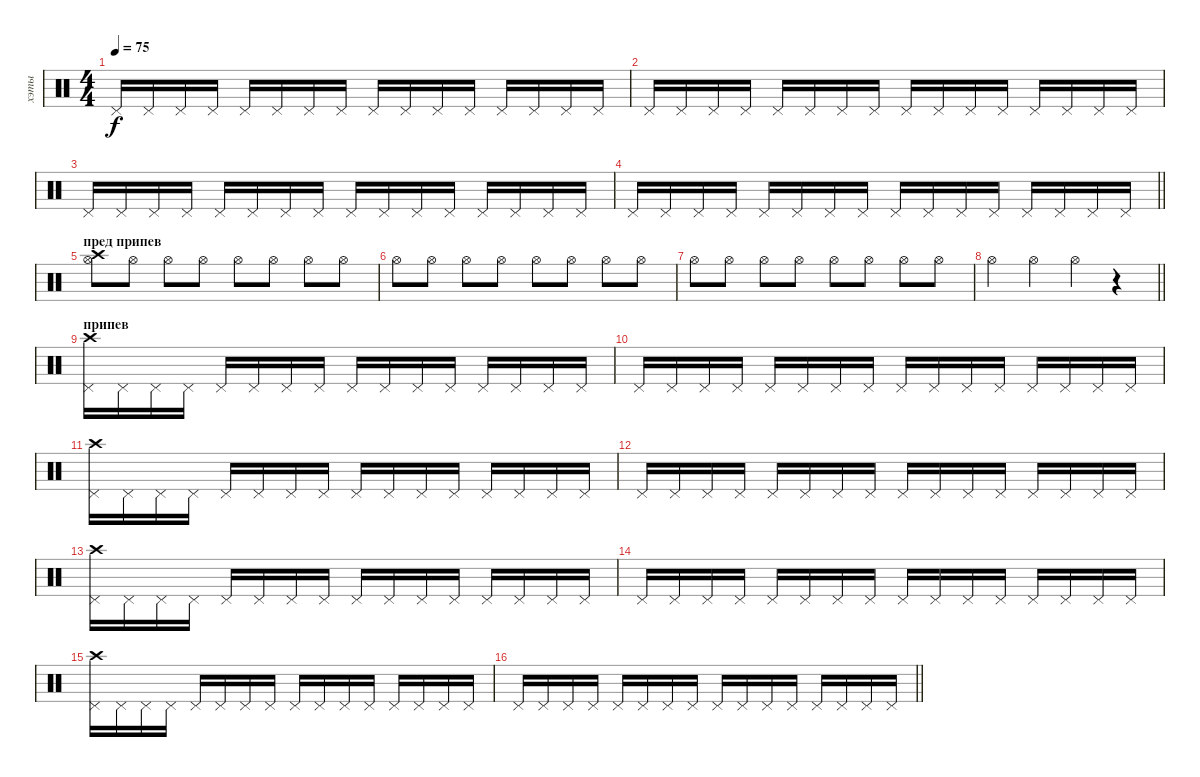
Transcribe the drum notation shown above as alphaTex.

\track ("хэты" "хэты") {instrument percussion}
\staff {score}
\articulation defaults
\ts (4 4)
\tempo 75
\clef neutral
\ks c "Pedal Hi-Hat (hit)".16{dy f} "Pedal Hi-Hat (hit)".16 "Pedal Hi-Hat (hit)".16 "Pedal Hi-Hat (hit)".16 "Pedal Hi-Hat (hit)".16 "Pedal Hi-Hat (hit)".16 "Pedal Hi-Hat (hit)".16 "Pedal Hi-Hat (hit)".16 "Pedal Hi-Hat (hit)".16 "Pedal Hi-Hat (hit)".16 "Pedal Hi-Hat (hit)".16 "Pedal Hi-Hat (hit)".16 "Pedal Hi-Hat (hit)".16 "Pedal Hi-Hat (hit)".16 "Pedal Hi-Hat (hit)".16 "Pedal Hi-Hat (hit)".16
|
"Pedal Hi-Hat (hit)".16 "Pedal Hi-Hat (hit)".16 "Pedal Hi-Hat (hit)".16 "Pedal Hi-Hat (hit)".16 "Pedal Hi-Hat (hit)".16 "Pedal Hi-Hat (hit)".16 "Pedal Hi-Hat (hit)".16 "Pedal Hi-Hat (hit)".16 "Pedal Hi-Hat (hit)".16 "Pedal Hi-Hat (hit)".16 "Pedal Hi-Hat (hit)".16 "Pedal Hi-Hat (hit)".16 "Pedal Hi-Hat (hit)".16 "Pedal Hi-Hat (hit)".16 "Pedal Hi-Hat (hit)".16 "Pedal Hi-Hat (hit)".16 |
"Pedal Hi-Hat (hit)".16 "Pedal Hi-Hat (hit)".16 "Pedal Hi-Hat (hit)".16 "Pedal Hi-Hat (hit)".16 "Pedal Hi-Hat (hit)".16 "Pedal Hi-Hat (hit)".16 "Pedal Hi-Hat (hit)".16 "Pedal Hi-Hat (hit)".16 "Pedal Hi-Hat (hit)".16 "Pedal Hi-Hat (hit)".16 "Pedal Hi-Hat (hit)".16 "Pedal Hi-Hat (hit)".16 "Pedal Hi-Hat (hit)".16 "Pedal Hi-Hat (hit)".16 "Pedal Hi-Hat (hit)".16 "Pedal Hi-Hat (hit)".16 |
\barLineRight lightlight "Pedal Hi-Hat (hit)".16 "Pedal Hi-Hat (hit)".16 "Pedal Hi-Hat (hit)".16 "Pedal Hi-Hat (hit)".16 "Pedal Hi-Hat (hit)".16 "Pedal Hi-Hat (hit)".16 "Pedal Hi-Hat (hit)".16 "Pedal Hi-Hat (hit)".16 "Pedal Hi-Hat (hit)".16 "Pedal Hi-Hat (hit)".16 "Pedal Hi-Hat (hit)".16 "Pedal Hi-Hat (hit)".16 "Pedal Hi-Hat (hit)".16 "Pedal Hi-Hat (hit)".16 "Pedal Hi-Hat (hit)".16 "Pedal Hi-Hat (hit)".16
|
\section ("" "пред припев")
("Crash high (hit)" "Hi-Hat (open)").8 "Hi-Hat (open)".8 "Hi-Hat (open)".8 "Hi-Hat (open)".8 "Hi-Hat (open)".8 "Hi-Hat (open)".8 "Hi-Hat (open)".8 "Hi-Hat (open)".8 |
"Hi-Hat (open)".8 "Hi-Hat (open)".8 "Hi-Hat (open)".8 "Hi-Hat (open)".8 "Hi-Hat (open)".8 "Hi-Hat (open)".8 "Hi-Hat (open)".8 "Hi-Hat (open)".8 |
"Hi-Hat (open)".8 "Hi-Hat (open)".8 "Hi-Hat (open)".8 "Hi-Hat (open)".8 "Hi-Hat (open)".8 "Hi-Hat (open)".8 "Hi-Hat (open)".8 "Hi-Hat (open)".8 |
\barLineRight lightlight "Hi-Hat (open)".4 "Hi-Hat (open)".4 "Hi-Hat (open)".4
r.4 |
\section ("" "припев")
("Crash high (hit)" "Pedal Hi-Hat (hit)").16 "Pedal Hi-Hat (hit)".16 "Pedal Hi-Hat (hit)".16 "Pedal Hi-Hat (hit)".16 "Pedal Hi-Hat (hit)".16 "Pedal Hi-Hat (hit)".16 "Pedal Hi-Hat (hit)".16 "Pedal Hi-Hat (hit)".16 "Pedal Hi-Hat (hit)".16 "Pedal Hi-Hat (hit)".16 "Pedal Hi-Hat (hit)".16 "Pedal Hi-Hat (hit)".16 "Pedal Hi-Hat (hit)".16 "Pedal Hi-Hat (hit)".16 "Pedal Hi-Hat (hit)".16 "Pedal Hi-Hat (hit)".16 |
"Pedal Hi-Hat (hit)".16 "Pedal Hi-Hat (hit)".16 "Pedal Hi-Hat (hit)".16 "Pedal Hi-Hat (hit)".16 "Pedal Hi-Hat (hit)".16 "Pedal Hi-Hat (hit)".16 "Pedal Hi-Hat (hit)".16 "Pedal Hi-Hat (hit)".16 "Pedal Hi-Hat (hit)".16 "Pedal Hi-Hat (hit)".16 "Pedal Hi-Hat (hit)".16 "Pedal Hi-Hat (hit)".16 "Pedal Hi-Hat (hit)".16 "Pedal Hi-Hat (hit)".16 "Pedal Hi-Hat (hit)".16 "Pedal Hi-Hat (hit)".16 |
("Crash high (hit)" "Pedal Hi-Hat (hit)").16 "Pedal Hi-Hat (hit)".16 "Pedal Hi-Hat (hit)".16 "Pedal Hi-Hat (hit)".16 "Pedal Hi-Hat (hit)".16 "Pedal Hi-Hat (hit)".16 "Pedal Hi-Hat (hit)".16 "Pedal Hi-Hat (hit)".16 "Pedal Hi-Hat (hit)".16 "Pedal Hi-Hat (hit)".16 "Pedal Hi-Hat (hit)".16 "Pedal Hi-Hat (hit)".16 "Pedal Hi-Hat (hit)".16 "Pedal Hi-Hat (hit)".16 "Pedal Hi-Hat (hit)".16 "Pedal Hi-Hat (hit)".16 |
"Pedal Hi-Hat (hit)".16 "Pedal Hi-Hat (hit)".16 "Pedal Hi-Hat (hit)".16 "Pedal Hi-Hat (hit)".16 "Pedal Hi-Hat (hit)".16 "Pedal Hi-Hat (hit)".16 "Pedal Hi-Hat (hit)".16 "Pedal Hi-Hat (hit)".16 "Pedal Hi-Hat (hit)".16 "Pedal Hi-Hat (hit)".16 "Pedal Hi-Hat (hit)".16 "Pedal Hi-Hat (hit)".16 "Pedal Hi-Hat (hit)".16 "Pedal Hi-Hat (hit)".16 "Pedal Hi-Hat (hit)".16 "Pedal Hi-Hat (hit)".16 |
("Crash high (hit)" "Pedal Hi-Hat (hit)").16 "Pedal Hi-Hat (hit)".16 "Pedal Hi-Hat (hit)".16 "Pedal Hi-Hat (hit)".16 "Pedal Hi-Hat (hit)".16 "Pedal Hi-Hat (hit)".16 "Pedal Hi-Hat (hit)".16 "Pedal Hi-Hat (hit)".16 "Pedal Hi-Hat (hit)".16 "Pedal Hi-Hat (hit)".16 "Pedal Hi-Hat (hit)".16 "Pedal Hi-Hat (hit)".16 "Pedal Hi-Hat (hit)".16 "Pedal Hi-Hat (hit)".16 "Pedal Hi-Hat (hit)".16 "Pedal Hi-Hat (hit)".16 |
"Pedal Hi-Hat (hit)".16 "Pedal Hi-Hat (hit)".16 "Pedal Hi-Hat (hit)".16 "Pedal Hi-Hat (hit)".16 "Pedal Hi-Hat (hit)".16 "Pedal Hi-Hat (hit)".16 "Pedal Hi-Hat (hit)".16 "Pedal Hi-Hat (hit)".16 "Pedal Hi-Hat (hit)".16 "Pedal Hi-Hat (hit)".16 "Pedal Hi-Hat (hit)".16 "Pedal Hi-Hat (hit)".16 "Pedal Hi-Hat (hit)".16 "Pedal Hi-Hat (hit)".16 "Pedal Hi-Hat (hit)".16 "Pedal Hi-Hat (hit)".16 |
("Crash high (hit)" "Pedal Hi-Hat (hit)").16 "Pedal Hi-Hat (hit)".16 "Pedal Hi-Hat (hit)".16 "Pedal Hi-Hat (hit)".16 "Pedal Hi-Hat (hit)".16 "Pedal Hi-Hat (hit)".16 "Pedal Hi-Hat (hit)".16 "Pedal Hi-Hat (hit)".16 "Pedal Hi-Hat (hit)".16 "Pedal Hi-Hat (hit)".16 "Pedal Hi-Hat (hit)".16 "Pedal Hi-Hat (hit)".16 "Pedal Hi-Hat (hit)".16 "Pedal Hi-Hat (hit)".16 "Pedal Hi-Hat (hit)".16 "Pedal Hi-Hat (hit)".16 |
\barLineRight lightlight "Pedal Hi-Hat (hit)".16 "Pedal Hi-Hat (hit)".16 "Pedal Hi-Hat (hit)".16 "Pedal Hi-Hat (hit)".16 "Pedal Hi-Hat (hit)".16 "Pedal Hi-Hat (hit)".16 "Pedal Hi-Hat (hit)".16 "Pedal Hi-Hat (hit)".16 "Pedal Hi-Hat (hit)".16 "Pedal Hi-Hat (hit)".16 "Pedal Hi-Hat (hit)".16 "Pedal Hi-Hat (hit)".16 "Pedal Hi-Hat (hit)".16 "Pedal Hi-Hat (hit)".16 "Pedal Hi-Hat (hit)".16 "Pedal Hi-Hat (hit)".16
